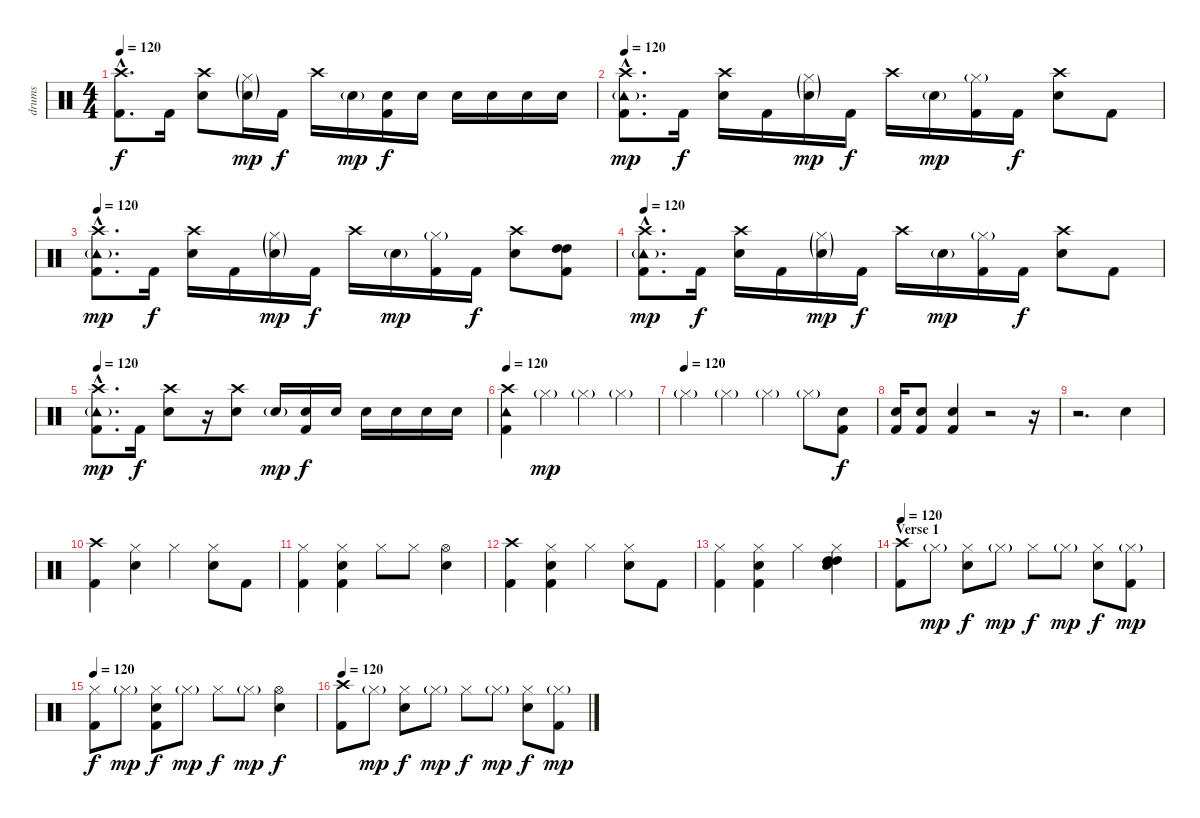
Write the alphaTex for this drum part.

\track ("drums" "drums") {instrument percussion}
\staff {score}
\articulation defaults
\ts (4 4)
\tempo 120
\clef neutral
\ks c
("Crash high (hit)"{hac} "Kick (hit) 2"{hac}).8{d dy f} "Kick (hit) 2".16 ("Crash high (hit)" "Electric Snare (hit)").8 ("Hi-Hat (closed)"{g} "Electric Snare (hit)"{g}).16{dy mp} "Kick (hit) 2".16{dy f} "Crash high (hit)".16 "Electric Snare (hit)"{g}.16{dy mp} ("Electric Snare (hit)" "Kick (hit) 2").16{dy f} "Electric Snare (hit)".16 "Electric Snare (hit)".16 "Electric Snare (hit)".16 "Electric Snare (hit)".16 "Electric Snare (hit)".16 |
\tempo 120
("Crash high (hit)"{hac} "Tambourine (hit)"{g hac} "Kick (hit) 2"{hac}).8{d dy mp} "Kick (hit) 2".16{dy f} ("Crash high (hit)" "Electric Snare (hit)").16 "Kick (hit) 2".16 ("Hi-Hat (closed)"{g} "Electric Snare (hit)"{g}).16{dy mp} "Kick (hit) 2".16{dy f} "Crash high (hit)".16 "Electric Snare (hit)"{g}.16{dy mp} ("Hi-Hat (closed)"{g} "Kick (hit) 2").16 "Kick (hit) 2".16{dy f} ("Crash high (hit)" "Electric Snare (hit)").8 "Kick (hit) 2".8 |
\tempo 120
("Crash high (hit)"{hac} "Tambourine (hit)"{g hac} "Kick (hit) 2"{hac}).8{d dy mp} "Kick (hit) 2".16{dy f} ("Crash high (hit)" "Electric Snare (hit)").16 "Kick (hit) 2".16 ("Hi-Hat (closed)"{g} "Electric Snare (hit)"{g}).16{dy mp} "Kick (hit) 2".16{dy f} "Crash high (hit)".16 "Electric Snare (hit)"{g}.16{dy mp} ("Hi-Hat (closed)"{g} "Kick (hit) 2").16 "Kick (hit) 2".16{dy f} ("Crash high (hit)" "Electric Snare (hit)").8 ("High Tom (hit)" "High Tom (hit)" "Kick (hit) 2").8 |
\tempo 120
("Crash high (hit)"{hac} "Tambourine (hit)"{g hac} "Kick (hit) 2"{hac}).8{d dy mp} "Kick (hit) 2".16{dy f} ("Crash high (hit)" "Electric Snare (hit)").16 "Kick (hit) 2".16 ("Hi-Hat (closed)"{g} "Electric Snare (hit)"{g}).16{dy mp} "Kick (hit) 2".16{dy f} "Crash high (hit)".16 "Electric Snare (hit)"{g}.16{dy mp} ("Hi-Hat (closed)"{g} "Kick (hit) 2").16 "Kick (hit) 2".16{dy f} ("Crash high (hit)" "Electric Snare (hit)").8 "Kick (hit) 2".8 |
\tempo 120
("Crash high (hit)"{hac} "Tambourine (hit)"{g hac} "Kick (hit) 2"{hac}).8{d dy mp} "Kick (hit) 2".16{dy f} ("Crash high (hit)" "Electric Snare (hit)").8 r.16 ("Crash high (hit)" "Electric Snare (hit)").8 "Electric Snare (hit)"{g}.16{dy mp} ("Electric Snare (hit)" "Kick (hit) 2").16{dy f} "Electric Snare (hit)".16 "Electric Snare (hit)".16 "Electric Snare (hit)".16 "Electric Snare (hit)".16 "Electric Snare (hit)".16 |
\tempo 120
("Crash high (hit)" "Tambourine (hit)" "Kick (hit) 2").4 "Hi-Hat (closed)"{g}.4{dy mp} "Hi-Hat (closed)"{g}.4 "Hi-Hat (closed)"{g}.4 |
\tempo (120)
"Hi-Hat (closed)"{g}.4 "Hi-Hat (closed)"{g}.4 "Hi-Hat (closed)"{g}.4 "Hi-Hat (closed)"{g}.8 ("Electric Snare (hit)" "Kick (hit) 2").8{dy f} |
("Electric Snare (hit)" "Kick (hit) 2").16 ("Electric Snare (hit)" "Kick (hit) 2").8 ("Electric Snare (hit)" "Kick (hit) 2").4 r.2 r.16 |
r.2{d} "Snare (hit) 2".4 |
("Crash high (hit)" "Kick (hit) 2").4 ("Hi-Hat (closed)" "Electric Snare (hit)").4 "Hi-Hat (closed)".4 ("Hi-Hat (closed)" "Electric Snare (hit)").8 "Kick (hit) 2".8 |
("Hi-Hat (closed)" "Kick (hit) 2").4 ("Hi-Hat (closed)" "Electric Snare (hit)" "Kick (hit) 2").4 "Hi-Hat (closed)".8 "Hi-Hat (closed)".8 ("Hi-Hat (open)" "Electric Snare (hit)").4 |
("Crash high (hit)" "Kick (hit) 2").4 ("Hi-Hat (closed)" "Electric Snare (hit)" "Kick (hit) 2").4 "Hi-Hat (closed)".4 ("Hi-Hat (closed)" "Electric Snare (hit)").8 "Kick (hit) 2".8 |
("Hi-Hat (closed)" "Kick (hit) 2").4 ("Hi-Hat (closed)" "Electric Snare (hit)" "Kick (hit) 2").4 "Hi-Hat (closed)".4 ("Hi-Hat (closed)" "High Tom (hit)" "High Tom (hit)" "Electric Snare (hit)").4 |
\section ("" "Verse 1")
\tempo 120
("Crash high (hit)" "Kick (hit) 2").8 "Hi-Hat (closed)"{g}.8{dy mp} ("Hi-Hat (closed)" "Electric Snare (hit)").8{dy f} "Hi-Hat (closed)"{g}.8{dy mp} "Hi-Hat (closed)".8{dy f} "Hi-Hat (closed)"{g}.8{dy mp} ("Hi-Hat (closed)" "Electric Snare (hit)").8{dy f} ("Hi-Hat (closed)"{g} "Kick (hit) 2").8{dy mp} |
\tempo 120
("Hi-Hat (closed)" "Kick (hit) 2").8{dy f} "Hi-Hat (closed)"{g}.8{dy mp} ("Hi-Hat (closed)" "Electric Snare (hit)" "Kick (hit) 2").8{dy f} "Hi-Hat (closed)"{g}.8{dy mp} "Hi-Hat (closed)".8{dy f} "Hi-Hat (closed)"{g}.8{dy mp} ("Hi-Hat (open)" "Electric Snare (hit)").4{dy f} |
\tempo 120
("Crash high (hit)" "Kick (hit) 2").8 "Hi-Hat (closed)"{g}.8{dy mp} ("Hi-Hat (closed)" "Electric Snare (hit)").8{dy f} "Hi-Hat (closed)"{g}.8{dy mp} "Hi-Hat (closed)".8{dy f} "Hi-Hat (closed)"{g}.8{dy mp} ("Hi-Hat (closed)" "Electric Snare (hit)").8{dy f} ("Hi-Hat (closed)"{g} "Kick (hit) 2").8{dy mp}
